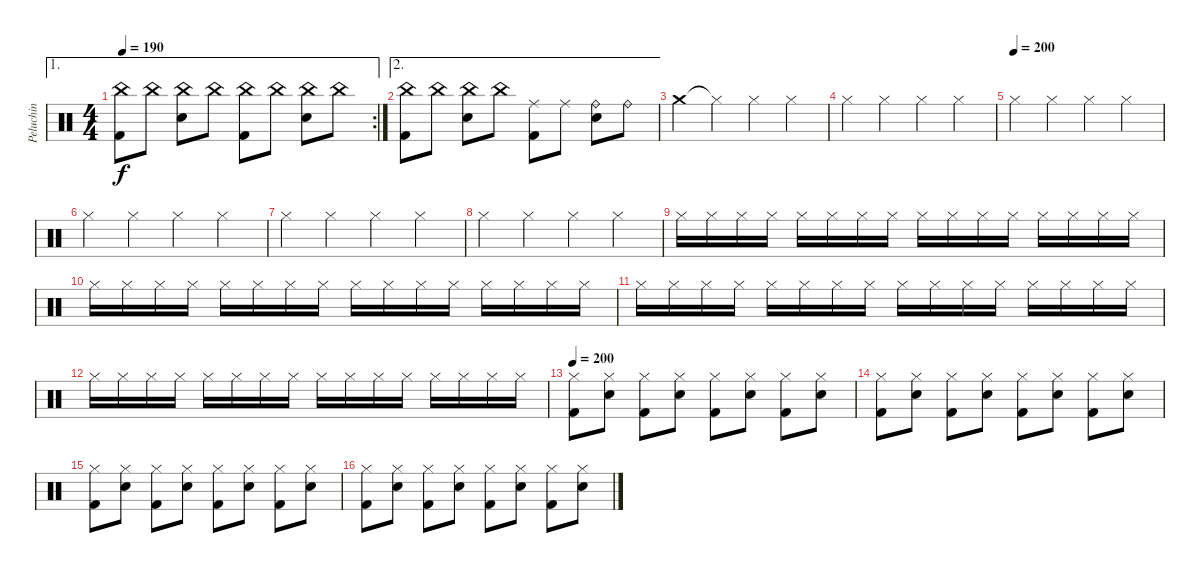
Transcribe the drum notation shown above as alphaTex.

\track ("Peluchin" "Peluchin") {instrument percussion}
\staff {score}
\articulation defaults
\ae 1
\rc 2
\ts (4 4)
\tempo 190
\clef neutral
\ks c
("Kick (hit) 2" "China (hit)").8{dy f} "China (hit)".8 ("Electric Snare (hit)" "China (hit)").8 "China (hit)".8 ("Kick (hit) 2" "China (hit)").8 "China (hit)".8 ("Electric Snare (hit)" "China (hit)").8 "China (hit)".8 |
\ae 2
("Kick (hit) 2" "China (hit)").8 "China (hit)".8 ("Electric Snare (hit)" "China (hit)").8 "China (hit)".8 ("Kick (hit) 2" "Ride (middle)").8 "Ride (middle)".8 ("Electric Snare (hit)" "Ride (bell)").8 "Ride (bell)".8 |
"Crash medium (hit)".4 "Hi-Hat (closed)"{t}.4 "Hi-Hat (closed)".4 "Hi-Hat (closed)".4 |
"Hi-Hat (closed)".4 "Hi-Hat (closed)".4 "Hi-Hat (closed)".4 "Hi-Hat (closed)".4 |
\tempo (200)
"Hi-Hat (closed)".4 "Hi-Hat (closed)".4 "Hi-Hat (closed)".4 "Hi-Hat (closed)".4 |
"Hi-Hat (closed)".4 "Hi-Hat (closed)".4 "Hi-Hat (closed)".4 "Hi-Hat (closed)".4 |
"Hi-Hat (closed)".4 "Hi-Hat (closed)".4 "Hi-Hat (closed)".4 "Hi-Hat (closed)".4 |
"Hi-Hat (closed)".4 "Hi-Hat (closed)".4 "Hi-Hat (closed)".4 "Hi-Hat (closed)".4 |
"Hi-Hat (closed)".16 "Hi-Hat (closed)".16 "Hi-Hat (closed)".16 "Hi-Hat (closed)".16 "Hi-Hat (closed)".16 "Hi-Hat (closed)".16 "Hi-Hat (closed)".16 "Hi-Hat (closed)".16 "Hi-Hat (closed)".16 "Hi-Hat (closed)".16 "Hi-Hat (closed)".16 "Hi-Hat (closed)".16 "Hi-Hat (closed)".16 "Hi-Hat (closed)".16 "Hi-Hat (closed)".16 "Hi-Hat (closed)".16 |
"Hi-Hat (closed)".16 "Hi-Hat (closed)".16 "Hi-Hat (closed)".16 "Hi-Hat (closed)".16 "Hi-Hat (closed)".16 "Hi-Hat (closed)".16 "Hi-Hat (closed)".16 "Hi-Hat (closed)".16 "Hi-Hat (closed)".16 "Hi-Hat (closed)".16 "Hi-Hat (closed)".16 "Hi-Hat (closed)".16 "Hi-Hat (closed)".16 "Hi-Hat (closed)".16 "Hi-Hat (closed)".16 "Hi-Hat (closed)".16 |
"Hi-Hat (closed)".16 "Hi-Hat (closed)".16 "Hi-Hat (closed)".16 "Hi-Hat (closed)".16 "Hi-Hat (closed)".16 "Hi-Hat (closed)".16 "Hi-Hat (closed)".16 "Hi-Hat (closed)".16 "Hi-Hat (closed)".16 "Hi-Hat (closed)".16 "Hi-Hat (closed)".16 "Hi-Hat (closed)".16 "Hi-Hat (closed)".16 "Hi-Hat (closed)".16 "Hi-Hat (closed)".16 "Hi-Hat (closed)".16 |
"Hi-Hat (closed)".16 "Hi-Hat (closed)".16 "Hi-Hat (closed)".16 "Hi-Hat (closed)".16 "Hi-Hat (closed)".16 "Hi-Hat (closed)".16 "Hi-Hat (closed)".16 "Hi-Hat (closed)".16 "Hi-Hat (closed)".16 "Hi-Hat (closed)".16 "Hi-Hat (closed)".16 "Hi-Hat (closed)".16 "Hi-Hat (closed)".16 "Hi-Hat (closed)".16 "Hi-Hat (closed)".16 "Hi-Hat (closed)".16 |
\tempo 200
("Kick (hit) 2" "Hi-Hat (closed)").8 ("Electric Snare (hit)" "Hi-Hat (closed)").8 ("Kick (hit) 2" "Hi-Hat (closed)").8 ("Electric Snare (hit)" "Hi-Hat (closed)").8 ("Kick (hit) 2" "Hi-Hat (closed)").8 ("Electric Snare (hit)" "Hi-Hat (closed)").8 ("Kick (hit) 2" "Hi-Hat (closed)").8 ("Electric Snare (hit)" "Hi-Hat (closed)").8 |
("Kick (hit) 2" "Hi-Hat (closed)").8 ("Electric Snare (hit)" "Hi-Hat (closed)").8 ("Kick (hit) 2" "Hi-Hat (closed)").8 ("Electric Snare (hit)" "Hi-Hat (closed)").8 ("Kick (hit) 2" "Hi-Hat (closed)").8 ("Electric Snare (hit)" "Hi-Hat (closed)").8 ("Kick (hit) 2" "Hi-Hat (closed)").8 ("Electric Snare (hit)" "Hi-Hat (closed)").8 |
("Kick (hit) 2" "Hi-Hat (closed)").8 ("Electric Snare (hit)" "Hi-Hat (closed)").8 ("Kick (hit) 2" "Hi-Hat (closed)").8 ("Electric Snare (hit)" "Hi-Hat (closed)").8 ("Kick (hit) 2" "Hi-Hat (closed)").8 ("Electric Snare (hit)" "Hi-Hat (closed)").8 ("Kick (hit) 2" "Hi-Hat (closed)").8 ("Electric Snare (hit)" "Hi-Hat (closed)").8 |
("Kick (hit) 2" "Hi-Hat (closed)").8 ("Electric Snare (hit)" "Hi-Hat (closed)").8 ("Kick (hit) 2" "Hi-Hat (closed)").8 ("Electric Snare (hit)" "Hi-Hat (closed)").8 ("Kick (hit) 2" "Hi-Hat (closed)").8 ("Electric Snare (hit)" "Hi-Hat (closed)").8 ("Kick (hit) 2" "Hi-Hat (closed)").8 ("Electric Snare (hit)" "Hi-Hat (closed)").8
